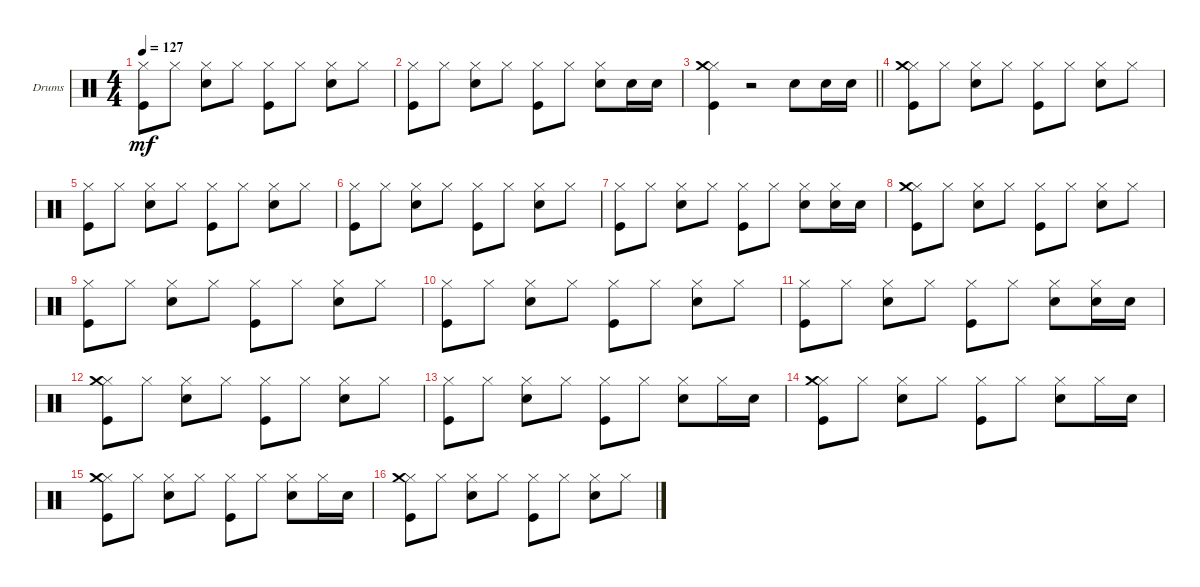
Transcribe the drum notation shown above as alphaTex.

\defaultSystemsLayout 4
\bracketExtendMode groupsimilarinstruments
\firstSystemTrackNameOrientation horizontal
\otherSystemsTrackNameOrientation horizontal
\track ("Drumkit" "Drums") {instrument percussion}
\staff {score}
\articulation defaults
\ts (4 4)
\tempo 127
\clef neutral
\scale
0.25
\ks c
("Kick (hit)" "Hi-Hat (closed)").8{dy mf} "Hi-Hat (closed)".8 ("Snare (hit) 2" "Hi-Hat (closed)").8 "Hi-Hat (closed)".8 ("Kick (hit)" "Hi-Hat (closed)").8 "Hi-Hat (closed)".8 ("Snare (hit) 2" "Hi-Hat (closed)").8 "Hi-Hat (closed)".8 |
\scale
0.25 ("Kick (hit)" "Hi-Hat (closed)").8 "Hi-Hat (closed)".8 ("Snare (hit) 2" "Hi-Hat (closed)").8 "Hi-Hat (closed)".8 ("Kick (hit)" "Hi-Hat (closed)").8 "Hi-Hat (closed)".8 ("Snare (hit) 2" "Hi-Hat (closed)").8 "Snare (hit) 2".16 "Snare (hit) 2".16 |
\scale
0.25
\barLineRight lightlight
("Hi-Hat (closed)" "Kick (hit)" "Crash medium (hit)").4 r.2 "Snare (hit) 2".8 "Snare (hit) 2".16 "Snare (hit) 2".16 |
\scale
0.25 ("Kick (hit)" "Hi-Hat (closed)" "Crash medium (hit)").8 "Hi-Hat (closed)".8 ("Snare (hit) 2" "Hi-Hat (closed)").8 "Hi-Hat (closed)".8 ("Kick (hit)" "Hi-Hat (closed)").8 "Hi-Hat (closed)".8 ("Snare (hit) 2" "Hi-Hat (closed)").8 "Hi-Hat (closed)".8 |
\scale
0.25 ("Kick (hit)" "Hi-Hat (closed)").8 "Hi-Hat (closed)".8 ("Snare (hit) 2" "Hi-Hat (closed)").8 "Hi-Hat (closed)".8 ("Kick (hit)" "Hi-Hat (closed)").8 "Hi-Hat (closed)".8 ("Snare (hit) 2" "Hi-Hat (closed)").8 "Hi-Hat (closed)".8 |
\scale
0.25 ("Kick (hit)" "Hi-Hat (closed)").8 "Hi-Hat (closed)".8 ("Snare (hit) 2" "Hi-Hat (closed)").8 "Hi-Hat (closed)".8 ("Kick (hit)" "Hi-Hat (closed)").8 "Hi-Hat (closed)".8 ("Snare (hit) 2" "Hi-Hat (closed)").8 "Hi-Hat (closed)".8 |
\scale
0.25 ("Kick (hit)" "Hi-Hat (closed)").8 "Hi-Hat (closed)".8 ("Snare (hit) 2" "Hi-Hat (closed)").8 "Hi-Hat (closed)".8 ("Kick (hit)" "Hi-Hat (closed)").8 "Hi-Hat (closed)".8 ("Snare (hit) 2" "Hi-Hat (closed)").8 ("Snare (hit) 2" "Hi-Hat (closed)").16 "Snare (hit) 2".16 |
\scale
0.25 ("Kick (hit)" "Hi-Hat (closed)" "Crash medium (hit)").8 "Hi-Hat (closed)".8 ("Snare (hit) 2" "Hi-Hat (closed)").8 "Hi-Hat (closed)".8 ("Kick (hit)" "Hi-Hat (closed)").8 "Hi-Hat (closed)".8 ("Snare (hit) 2" "Hi-Hat (closed)").8 "Hi-Hat (closed)".8 |
\scale
0.25 ("Kick (hit)" "Hi-Hat (closed)").8 "Hi-Hat (closed)".8 ("Snare (hit) 2" "Hi-Hat (closed)").8 "Hi-Hat (closed)".8 ("Kick (hit)" "Hi-Hat (closed)").8 "Hi-Hat (closed)".8 ("Snare (hit) 2" "Hi-Hat (closed)").8 "Hi-Hat (closed)".8 |
\scale
0.25 ("Kick (hit)" "Hi-Hat (closed)").8 "Hi-Hat (closed)".8 ("Snare (hit) 2" "Hi-Hat (closed)").8 "Hi-Hat (closed)".8 ("Kick (hit)" "Hi-Hat (closed)").8 "Hi-Hat (closed)".8 ("Snare (hit) 2" "Hi-Hat (closed)").8 "Hi-Hat (closed)".8 |
\scale
0.25 ("Kick (hit)" "Hi-Hat (closed)").8 "Hi-Hat (closed)".8 ("Snare (hit) 2" "Hi-Hat (closed)").8 "Hi-Hat (closed)".8 ("Kick (hit)" "Hi-Hat (closed)").8 "Hi-Hat (closed)".8 ("Snare (hit) 2" "Hi-Hat (closed)").8 ("Snare (hit) 2" "Hi-Hat (closed)").16 "Snare (hit) 2".16 |
\scale
0.25 ("Kick (hit)" "Hi-Hat (closed)" "Crash medium (hit)").8 "Hi-Hat (closed)".8 ("Snare (hit) 2" "Hi-Hat (closed)").8 "Hi-Hat (closed)".8 ("Kick (hit)" "Hi-Hat (closed)").8 "Hi-Hat (closed)".8 ("Snare (hit) 2" "Hi-Hat (closed)").8 "Hi-Hat (closed)".8 |
\scale
0.25 ("Kick (hit)" "Hi-Hat (closed)").8 "Hi-Hat (closed)".8 ("Snare (hit) 2" "Hi-Hat (closed)").8 "Hi-Hat (closed)".8 ("Kick (hit)" "Hi-Hat (closed)").8 "Hi-Hat (closed)".8 ("Snare (hit) 2" "Hi-Hat (closed)").8 "Hi-Hat (closed)".16 "Snare (hit) 2".16 |
\scale
0.25 ("Kick (hit)" "Hi-Hat (closed)" "Crash medium (hit)").8 "Hi-Hat (closed)".8 ("Snare (hit) 2" "Hi-Hat (closed)").8 "Hi-Hat (closed)".8 ("Kick (hit)" "Hi-Hat (closed)").8 "Hi-Hat (closed)".8 ("Snare (hit) 2" "Hi-Hat (closed)").8 "Hi-Hat (closed)".16 "Snare (hit) 2".16 |
\scale
0.25 ("Kick (hit)" "Hi-Hat (closed)" "Crash medium (hit)").8 "Hi-Hat (closed)".8 ("Snare (hit) 2" "Hi-Hat (closed)").8 "Hi-Hat (closed)".8 ("Kick (hit)" "Hi-Hat (closed)").8 "Hi-Hat (closed)".8 ("Snare (hit) 2" "Hi-Hat (closed)").8 "Hi-Hat (closed)".16 "Snare (hit) 2".16 |
\scale
0.25 ("Kick (hit)" "Hi-Hat (closed)" "Crash medium (hit)").8 "Hi-Hat (closed)".8 ("Snare (hit) 2" "Hi-Hat (closed)").8 "Hi-Hat (closed)".8 ("Kick (hit)" "Hi-Hat (closed)").8 "Hi-Hat (closed)".8 ("Snare (hit) 2" "Hi-Hat (closed)").8 "Hi-Hat (closed)".8
